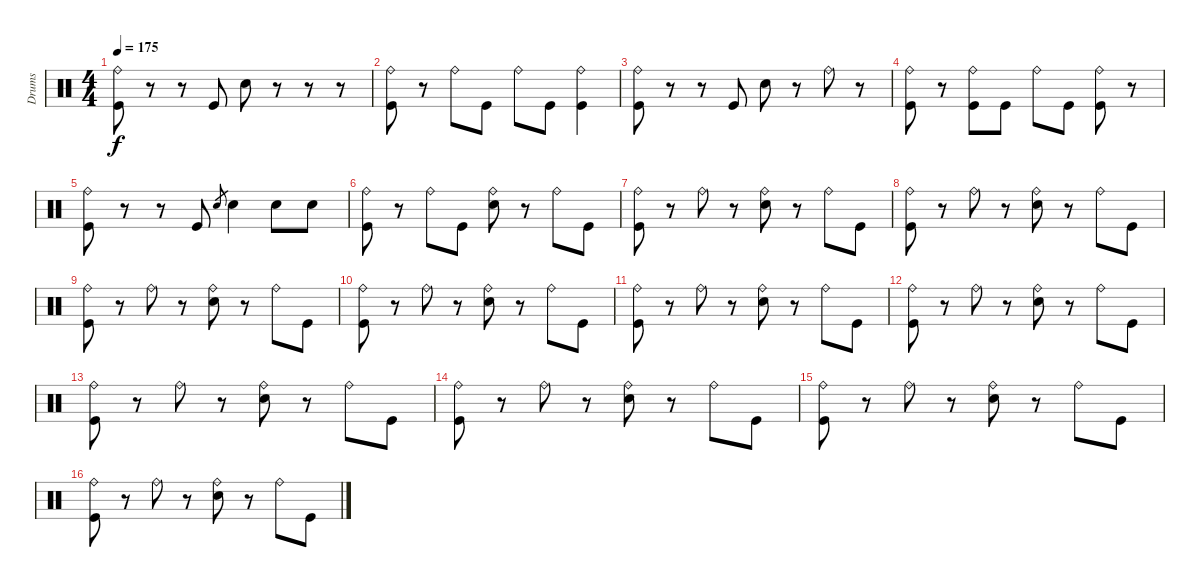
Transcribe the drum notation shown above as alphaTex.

\track ("Drums" "Drums") {instrument percussion}
\staff {score}
\articulation defaults
\ts (4 4)
\tempo 175
\clef neutral
\ks c
("Ride (bell)" "Kick (hit)").8{dy f} r.8 r.8 "Kick (hit)".8 "Electric Snare (hit)".8 r.8 r.8 r.8 |
("Ride (bell)" "Kick (hit)").8 r.8 "Ride (bell)".8 "Kick (hit)".8 "Ride (bell)".8 "Kick (hit)".8 ("Ride (bell)" "Kick (hit)").4 |
("Ride (bell)" "Kick (hit)").8 r.8 r.8 "Kick (hit)".8 "Electric Snare (hit)".8 r.8 "Ride (bell)".8 r.8 |
("Ride (bell)" "Kick (hit)").8 r.8 ("Ride (bell)" "Kick (hit)").8 "Kick (hit)".8 "Ride (bell)".8 "Kick (hit)".8 ("Ride (bell)" "Kick (hit)").8 r.8 |
("Ride (bell)" "Kick (hit)").8 r.8 r.8 "Kick (hit)".8 "Electric Snare (hit)".8{gr} "Electric Snare (hit)".4 "Electric Snare (hit)".8 "Electric Snare (hit)".8 |
("Ride (bell)" "Kick (hit)").8 r.8 "Ride (bell)".8 "Kick (hit)".8 ("Ride (bell)" "Electric Snare (hit)").8 r.8 "Ride (bell)".8 "Kick (hit)".8 |
("Ride (bell)" "Kick (hit)").8 r.8 "Ride (bell)".8 r.8 ("Ride (bell)" "Electric Snare (hit)").8 r.8 "Ride (bell)".8 "Kick (hit)".8 |
("Ride (bell)" "Kick (hit)").8 r.8 "Ride (bell)".8 r.8 ("Ride (bell)" "Electric Snare (hit)").8 r.8 "Ride (bell)".8 "Kick (hit)".8 |
("Ride (bell)" "Kick (hit)").8 r.8 "Ride (bell)".8 r.8 ("Ride (bell)" "Electric Snare (hit)").8 r.8 "Ride (bell)".8 "Kick (hit)".8 |
("Ride (bell)" "Kick (hit)").8 r.8 "Ride (bell)".8 r.8 ("Ride (bell)" "Electric Snare (hit)").8 r.8 "Ride (bell)".8 "Kick (hit)".8 |
("Ride (bell)" "Kick (hit)").8 r.8 "Ride (bell)".8 r.8 ("Ride (bell)" "Electric Snare (hit)").8 r.8 "Ride (bell)".8 "Kick (hit)".8 |
("Ride (bell)" "Kick (hit)").8 r.8 "Ride (bell)".8 r.8 ("Ride (bell)" "Electric Snare (hit)").8 r.8 "Ride (bell)".8 "Kick (hit)".8 |
("Ride (bell)" "Kick (hit)").8 r.8 "Ride (bell)".8 r.8 ("Ride (bell)" "Electric Snare (hit)").8 r.8 "Ride (bell)".8 "Kick (hit)".8 |
("Ride (bell)" "Kick (hit)").8 r.8 "Ride (bell)".8 r.8 ("Ride (bell)" "Electric Snare (hit)").8 r.8 "Ride (bell)".8 "Kick (hit)".8 |
("Ride (bell)" "Kick (hit)").8 r.8 "Ride (bell)".8 r.8 ("Ride (bell)" "Electric Snare (hit)").8 r.8 "Ride (bell)".8 "Kick (hit)".8 |
("Ride (bell)" "Kick (hit)").8 r.8 "Ride (bell)".8 r.8 ("Ride (bell)" "Electric Snare (hit)").8 r.8 "Ride (bell)".8 "Kick (hit)".8
